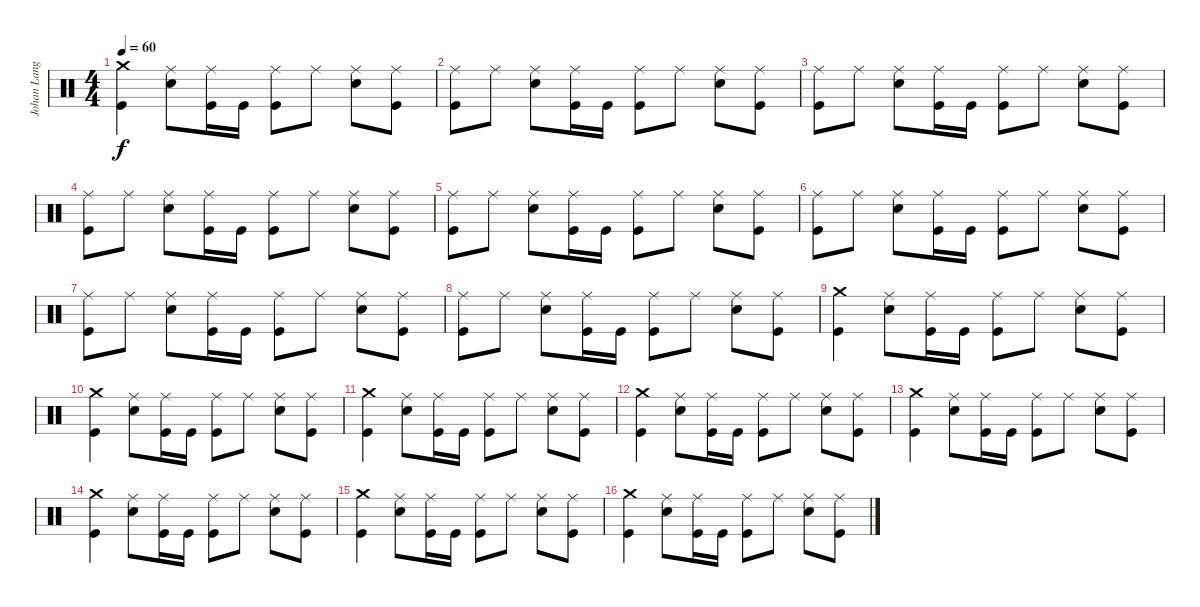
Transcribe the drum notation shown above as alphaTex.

\track ("Johan Langell" "Johan Lang") {instrument percussion}
\staff {score}
\articulation defaults
\ts (4 4)
\tempo 60
\clef neutral
\ks c
("Crash medium (hit)" "Kick (hit)").4{dy f} ("Ride (middle)" "Snare (hit) 2").8 ("Ride (middle)" "Kick (hit)").16 "Kick (hit)".16 ("Ride (middle)" "Kick (hit)").8 "Ride (middle)".8 ("Ride (middle)" "Snare (hit) 2").8 ("Ride (middle)" "Kick (hit)").8 |
("Ride (middle)" "Kick (hit)").8 "Ride (middle)".8 ("Ride (middle)" "Snare (hit) 2").8 ("Ride (middle)" "Kick (hit)").16 "Kick (hit)".16 ("Ride (middle)" "Kick (hit)").8 "Ride (middle)".8 ("Ride (middle)" "Snare (hit) 2").8 ("Ride (middle)" "Kick (hit)").8 |
("Ride (middle)" "Kick (hit)").8 "Ride (middle)".8 ("Ride (middle)" "Snare (hit) 2").8 ("Ride (middle)" "Kick (hit)").16 "Kick (hit)".16 ("Ride (middle)" "Kick (hit)").8 "Ride (middle)".8 ("Ride (middle)" "Snare (hit) 2").8 ("Ride (middle)" "Kick (hit)").8 |
("Ride (middle)" "Kick (hit)").8 "Ride (middle)".8 ("Ride (middle)" "Snare (hit) 2").8 ("Ride (middle)" "Kick (hit)").16 "Kick (hit)".16 ("Ride (middle)" "Kick (hit)").8 "Ride (middle)".8 ("Ride (middle)" "Snare (hit) 2").8 ("Ride (middle)" "Kick (hit)").8 |
("Ride (middle)" "Kick (hit)").8 "Ride (middle)".8 ("Ride (middle)" "Snare (hit) 2").8 ("Ride (middle)" "Kick (hit)").16 "Kick (hit)".16 ("Ride (middle)" "Kick (hit)").8 "Ride (middle)".8 ("Ride (middle)" "Snare (hit) 2").8 ("Ride (middle)" "Kick (hit)").8 |
("Ride (middle)" "Kick (hit)").8 "Ride (middle)".8 ("Ride (middle)" "Snare (hit) 2").8 ("Ride (middle)" "Kick (hit)").16 "Kick (hit)".16 ("Ride (middle)" "Kick (hit)").8 "Ride (middle)".8 ("Ride (middle)" "Snare (hit) 2").8 ("Ride (middle)" "Kick (hit)").8 |
("Ride (middle)" "Kick (hit)").8 "Ride (middle)".8 ("Ride (middle)" "Snare (hit) 2").8 ("Ride (middle)" "Kick (hit)").16 "Kick (hit)".16 ("Ride (middle)" "Kick (hit)").8 "Ride (middle)".8 ("Ride (middle)" "Snare (hit) 2").8 ("Ride (middle)" "Kick (hit)").8 |
("Ride (middle)" "Kick (hit)").8 "Ride (middle)".8 ("Ride (middle)" "Snare (hit) 2").8 ("Ride (middle)" "Kick (hit)").16 "Kick (hit)".16 ("Ride (middle)" "Kick (hit)").8 "Ride (middle)".8 ("Ride (middle)" "Snare (hit) 2").8 ("Ride (middle)" "Kick (hit)").8 |
("Crash medium (hit)" "Kick (hit)").4 ("Ride (middle)" "Snare (hit) 2").8 ("Ride (middle)" "Kick (hit)").16 "Kick (hit)".16 ("Ride (middle)" "Kick (hit)").8 "Ride (middle)".8 ("Ride (middle)" "Snare (hit) 2").8 ("Ride (middle)" "Kick (hit)").8 |
("Crash medium (hit)" "Kick (hit)").4 ("Ride (middle)" "Snare (hit) 2").8 ("Ride (middle)" "Kick (hit)").16 "Kick (hit)".16 ("Ride (middle)" "Kick (hit)").8 "Ride (middle)".8 ("Ride (middle)" "Snare (hit) 2").8 ("Ride (middle)" "Kick (hit)").8 |
("Crash medium (hit)" "Kick (hit)").4 ("Ride (middle)" "Snare (hit) 2").8 ("Ride (middle)" "Kick (hit)").16 "Kick (hit)".16 ("Ride (middle)" "Kick (hit)").8 "Ride (middle)".8 ("Ride (middle)" "Snare (hit) 2").8 ("Ride (middle)" "Kick (hit)").8 |
("Crash medium (hit)" "Kick (hit)").4 ("Ride (middle)" "Snare (hit) 2").8 ("Ride (middle)" "Kick (hit)").16 "Kick (hit)".16 ("Ride (middle)" "Kick (hit)").8 "Ride (middle)".8 ("Ride (middle)" "Snare (hit) 2").8 ("Ride (middle)" "Kick (hit)").8 |
("Crash medium (hit)" "Kick (hit)").4 ("Ride (middle)" "Snare (hit) 2").8 ("Ride (middle)" "Kick (hit)").16 "Kick (hit)".16 ("Ride (middle)" "Kick (hit)").8 "Ride (middle)".8 ("Ride (middle)" "Snare (hit) 2").8 ("Ride (middle)" "Kick (hit)").8 |
("Crash medium (hit)" "Kick (hit)").4 ("Ride (middle)" "Snare (hit) 2").8 ("Ride (middle)" "Kick (hit)").16 "Kick (hit)".16 ("Ride (middle)" "Kick (hit)").8 "Ride (middle)".8 ("Ride (middle)" "Snare (hit) 2").8 ("Ride (middle)" "Kick (hit)").8 |
("Crash medium (hit)" "Kick (hit)").4 ("Ride (middle)" "Snare (hit) 2").8 ("Ride (middle)" "Kick (hit)").16 "Kick (hit)".16 ("Ride (middle)" "Kick (hit)").8 "Ride (middle)".8 ("Ride (middle)" "Snare (hit) 2").8 ("Ride (middle)" "Kick (hit)").8 |
("Crash medium (hit)" "Kick (hit)").4 ("Ride (middle)" "Snare (hit) 2").8 ("Ride (middle)" "Kick (hit)").16 "Kick (hit)".16 ("Ride (middle)" "Kick (hit)").8 "Ride (middle)".8 ("Ride (middle)" "Snare (hit) 2").8 ("Ride (middle)" "Kick (hit)").8
